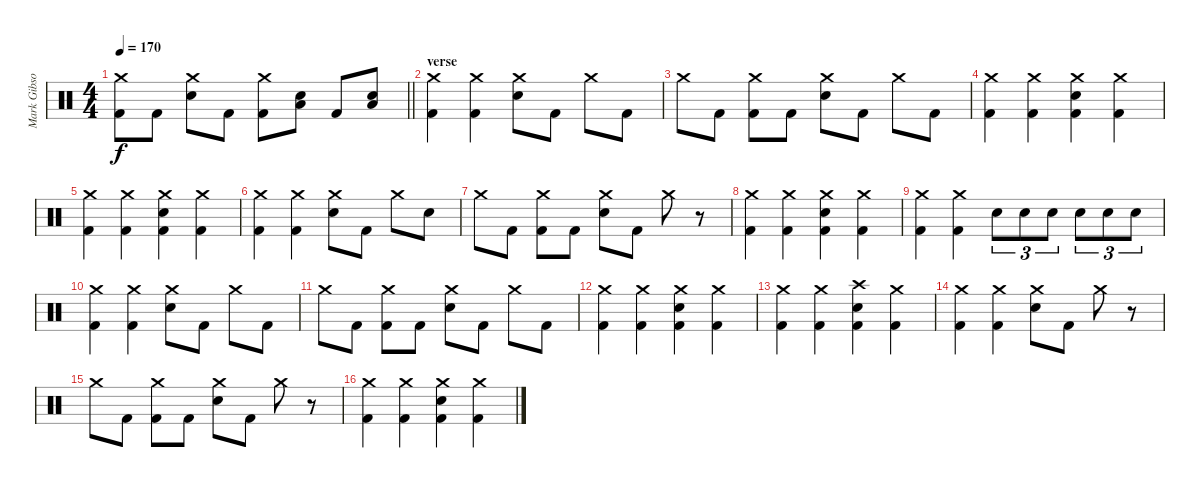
\track ("Mark Gibson" "Mark Gibso") {instrument percussion}
\staff {score}
\articulation defaults
\ts (4 4)
\tempo 170
\clef neutral
\barLineRight lightlight
\ks c
("Crash medium (hit)" "Kick (hit) 2").8{dy f} "Kick (hit) 2".8 ("Crash medium (hit)" "Electric Snare (hit)").8 "Kick (hit) 2".8 ("Crash medium (hit)" "Kick (hit) 2").8 ("Low Floor Tom (hit)" "Electric Snare (hit)").8 "Kick (hit) 2".8 ("Low Floor Tom (hit)" "Electric Snare (hit)").8 |
\section ("" "verse")
("Crash medium (hit)" "Kick (hit) 2").4 ("Crash medium (hit)" "Kick (hit) 2").4 ("Crash medium (hit)" "Electric Snare (hit)").8 "Kick (hit) 2".8 "Crash medium (hit)".8 "Kick (hit) 2".8 |
"Crash medium (hit)".8 "Kick (hit) 2".8 ("Crash medium (hit)" "Kick (hit) 2").8 "Kick (hit) 2".8 ("Crash medium (hit)" "Electric Snare (hit)").8 "Kick (hit) 2".8 "Crash medium (hit)".8 "Kick (hit) 2".8 |
("Crash medium (hit)" "Kick (hit) 2").4 ("Crash medium (hit)" "Kick (hit) 2").4 ("Crash medium (hit)" "Electric Snare (hit)" "Kick (hit) 2").4 ("Crash medium (hit)" "Kick (hit) 2").4 |
("Crash medium (hit)" "Kick (hit) 2").4 ("Crash medium (hit)" "Kick (hit) 2").4 ("Crash medium (hit)" "Electric Snare (hit)" "Kick (hit) 2").4 ("Crash medium (hit)" "Kick (hit) 2").4 |
("Crash medium (hit)" "Kick (hit) 2").4 ("Crash medium (hit)" "Kick (hit) 2").4 ("Crash medium (hit)" "Electric Snare (hit)").8 "Kick (hit) 2".8 "Crash medium (hit)".8 "Electric Snare (hit)".8 |
"Crash medium (hit)".8 "Kick (hit) 2".8 ("Crash medium (hit)" "Kick (hit) 2").8 "Kick (hit) 2".8 ("Crash medium (hit)" "Electric Snare (hit)").8 "Kick (hit) 2".8 "Crash medium (hit)".8 r.8 |
("Crash medium (hit)" "Kick (hit) 2").4 ("Crash medium (hit)" "Kick (hit) 2").4 ("Crash medium (hit)" "Electric Snare (hit)" "Kick (hit) 2").4 ("Crash medium (hit)" "Kick (hit) 2").4 |
("Crash medium (hit)" "Kick (hit) 2").4 ("Crash medium (hit)" "Kick (hit) 2").4 "Electric Snare (hit)".8{tu (3 2)} "Electric Snare (hit)".8{tu (3 2)} "Electric Snare (hit)".8{tu (3 2)} "Electric Snare (hit)".8{tu (3 2)} "Electric Snare (hit)".8{tu (3 2)} "Electric Snare (hit)".8{tu (3 2)} |
("Crash medium (hit)" "Kick (hit) 2").4 ("Crash medium (hit)" "Kick (hit) 2").4 ("Crash medium (hit)" "Electric Snare (hit)").8 "Kick (hit) 2".8 "Crash medium (hit)".8 "Kick (hit) 2".8 |
"Crash medium (hit)".8 "Kick (hit) 2".8 ("Crash medium (hit)" "Kick (hit) 2").8 "Kick (hit) 2".8 ("Crash medium (hit)" "Electric Snare (hit)").8 "Kick (hit) 2".8 "Crash medium (hit)".8 "Kick (hit) 2".8 |
("Crash medium (hit)" "Kick (hit) 2").4 ("Crash medium (hit)" "Kick (hit) 2").4 ("Crash medium (hit)" "Electric Snare (hit)" "Kick (hit) 2").4 ("Crash medium (hit)" "Kick (hit) 2").4 |
("Crash medium (hit)" "Kick (hit) 2").4 ("Crash medium (hit)" "Kick (hit) 2").4 ("Crash high (hit)" "Electric Snare (hit)" "Kick (hit) 2").4 ("Crash medium (hit)" "Kick (hit) 2").4 |
("Crash medium (hit)" "Kick (hit) 2").4 ("Crash medium (hit)" "Kick (hit) 2").4 ("Crash medium (hit)" "Electric Snare (hit)").8 "Kick (hit) 2".8 "Crash medium (hit)".8 r.8 |
"Crash medium (hit)".8 "Kick (hit) 2".8 ("Crash medium (hit)" "Kick (hit) 2").8 "Kick (hit) 2".8 ("Crash medium (hit)" "Electric Snare (hit)").8 "Kick (hit) 2".8 "Crash medium (hit)".8 r.8 |
("Crash medium (hit)" "Kick (hit) 2").4 ("Crash medium (hit)" "Kick (hit) 2").4 ("Crash medium (hit)" "Electric Snare (hit)" "Kick (hit) 2").4 ("Crash medium (hit)" "Kick (hit) 2").4
